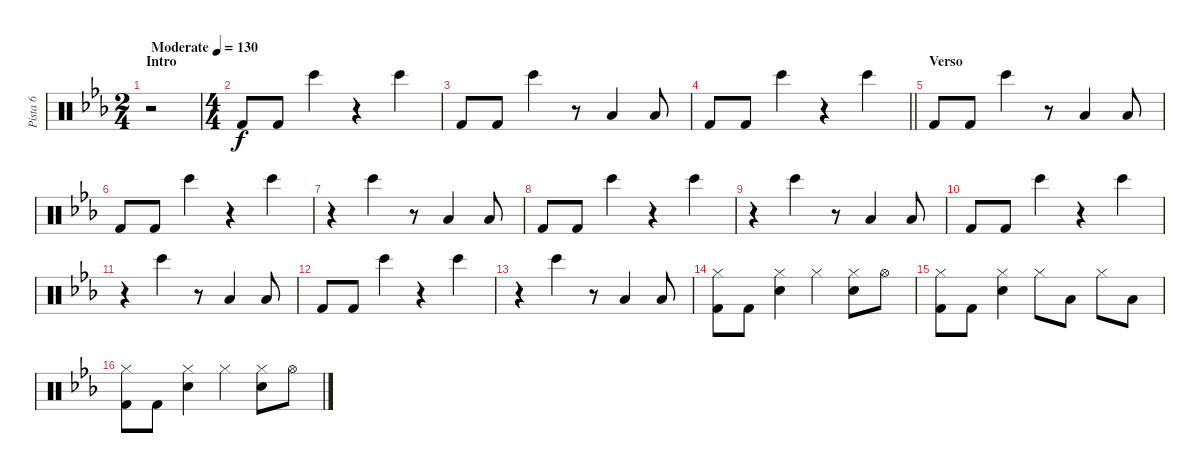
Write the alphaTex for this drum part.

\track ("Pista 6" "Pista 6") {instrument percussion}
\staff {score}
\articulation defaults
\ts (2 4)
\section ("" "Intro")
\tempo (130 "Moderate")
\clef neutral
\ks eb
r.2{dy f} |
\ts (4 4)
"Kick (hit) 2".8 "Kick (hit) 2".8 "Bongo High (hit)".4 r.4 "Bongo High (hit)".4 |
"Kick (hit) 2".8 "Kick (hit) 2".8 "Bongo High (hit)".4 r.8 "Low Tom (hit)".4 "Low Tom (hit)".8 |
\barLineRight lightlight "Kick (hit) 2".8 "Kick (hit) 2".8 "Bongo High (hit)".4
r.4 "Bongo High (hit)".4 |
\section ("" "Verso")
"Kick (hit) 2".8 "Kick (hit) 2".8 "Bongo High (hit)".4 r.8 "Low Tom (hit)".4 "Low Tom (hit)".8 |
"Kick (hit) 2".8 "Kick (hit) 2".8 "Bongo High (hit)".4 r.4 "Bongo High (hit)".4 |
r.4 "Bongo High (hit)".4 r.8 "Low Tom (hit)".4 "Low Tom (hit)".8 |
"Kick (hit) 2".8 "Kick (hit) 2".8 "Bongo High (hit)".4 r.4 "Bongo High (hit)".4 |
r.4 "Bongo High (hit)".4 r.8 "Low Tom (hit)".4 "Low Tom (hit)".8 |
"Kick (hit) 2".8 "Kick (hit) 2".8 "Bongo High (hit)".4 r.4 "Bongo High (hit)".4 |
r.4 "Bongo High (hit)".4 r.8 "Low Tom (hit)".4 "Low Tom (hit)".8 |
"Kick (hit) 2".8 "Kick (hit) 2".8 "Bongo High (hit)".4 r.4 "Bongo High (hit)".4 |
r.4 "Bongo High (hit)".4 r.8 "Low Tom (hit)".4 "Low Tom (hit)".8 |
("Hi-Hat (closed)" "Kick (hit) 2").8 "Kick (hit) 2".8 ("Hi-Hat (closed)" "Snare (hit) 2").4 "Hi-Hat (closed)".4 ("Hi-Hat (closed)" "Snare (hit) 2").8 "Hi-Hat (open)".8 |
("Hi-Hat (closed)" "Kick (hit) 2").8 "Kick (hit) 2".8 ("Hi-Hat (closed)" "Snare (hit) 2").4 "Hi-Hat (closed)".8 "Low Tom (hit)".8 "Hi-Hat (closed)".8 "Low Tom (hit)".8 |
("Hi-Hat (closed)" "Kick (hit) 2").8 "Kick (hit) 2".8 ("Hi-Hat (closed)" "Snare (hit) 2").4 "Hi-Hat (closed)".4 ("Hi-Hat (closed)" "Snare (hit) 2").8 "Hi-Hat (open)".8
